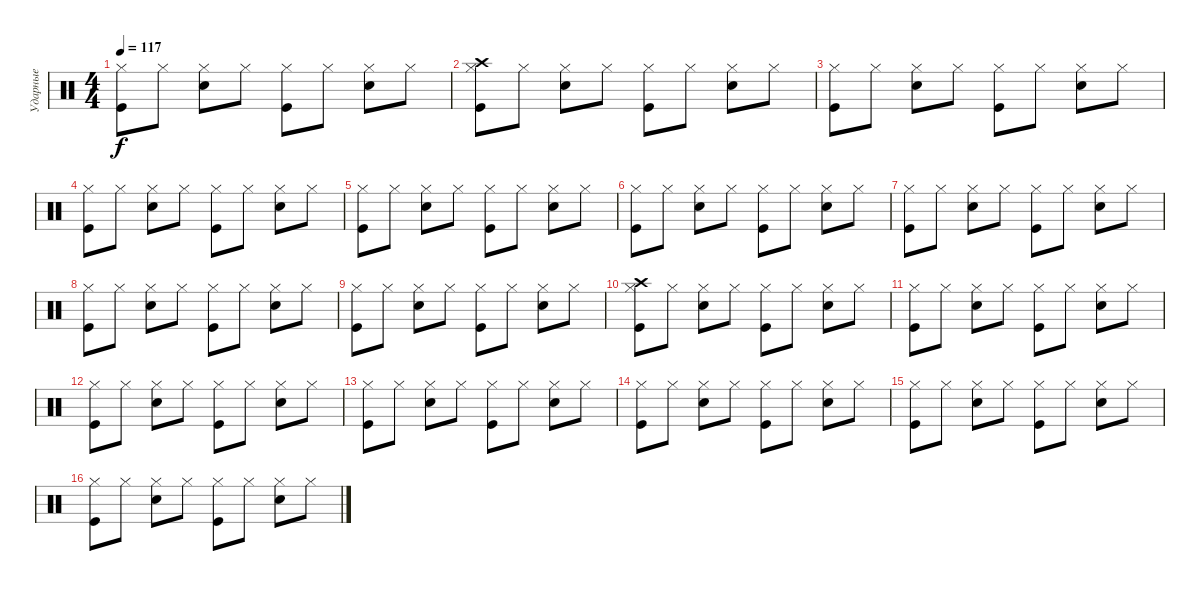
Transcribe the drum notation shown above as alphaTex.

\track ("Ударные" "Ударные") {instrument percussion}
\staff {score}
\articulation defaults
\ts (4 4)
\tempo 117
\clef neutral
\ks c
("Kick (hit)" "Hi-Hat (closed)").8{dy f} "Hi-Hat (closed)".8 ("Hi-Hat (closed)" "Snare (hit) 2").8 "Hi-Hat (closed)".8 ("Kick (hit)" "Hi-Hat (closed)").8 "Hi-Hat (closed)".8 ("Hi-Hat (closed)" "Snare (hit) 2").8 "Hi-Hat (closed)".8 |
("Kick (hit)" "Hi-Hat (closed)" "Crash high (hit)").8 "Hi-Hat (closed)".8 ("Hi-Hat (closed)" "Snare (hit) 2").8 "Hi-Hat (closed)".8 ("Kick (hit)" "Hi-Hat (closed)").8 "Hi-Hat (closed)".8 ("Hi-Hat (closed)" "Snare (hit) 2").8 "Hi-Hat (closed)".8 |
("Kick (hit)" "Hi-Hat (closed)").8 "Hi-Hat (closed)".8 ("Hi-Hat (closed)" "Snare (hit) 2").8 "Hi-Hat (closed)".8 ("Kick (hit)" "Hi-Hat (closed)").8 "Hi-Hat (closed)".8 ("Hi-Hat (closed)" "Snare (hit) 2").8 "Hi-Hat (closed)".8 |
("Kick (hit)" "Hi-Hat (closed)").8 "Hi-Hat (closed)".8 ("Hi-Hat (closed)" "Snare (hit) 2").8 "Hi-Hat (closed)".8 ("Kick (hit)" "Hi-Hat (closed)").8 "Hi-Hat (closed)".8 ("Hi-Hat (closed)" "Snare (hit) 2").8 "Hi-Hat (closed)".8 |
("Kick (hit)" "Hi-Hat (closed)").8 "Hi-Hat (closed)".8 ("Hi-Hat (closed)" "Snare (hit) 2").8 "Hi-Hat (closed)".8 ("Kick (hit)" "Hi-Hat (closed)").8 "Hi-Hat (closed)".8 ("Hi-Hat (closed)" "Snare (hit) 2").8 "Hi-Hat (closed)".8 |
("Kick (hit)" "Hi-Hat (closed)").8 "Hi-Hat (closed)".8 ("Hi-Hat (closed)" "Snare (hit) 2").8 "Hi-Hat (closed)".8 ("Kick (hit)" "Hi-Hat (closed)").8 "Hi-Hat (closed)".8 ("Hi-Hat (closed)" "Snare (hit) 2").8 "Hi-Hat (closed)".8 |
("Kick (hit)" "Hi-Hat (closed)").8 "Hi-Hat (closed)".8 ("Hi-Hat (closed)" "Snare (hit) 2").8 "Hi-Hat (closed)".8 ("Kick (hit)" "Hi-Hat (closed)").8 "Hi-Hat (closed)".8 ("Hi-Hat (closed)" "Snare (hit) 2").8 "Hi-Hat (closed)".8 |
("Kick (hit)" "Hi-Hat (closed)").8 "Hi-Hat (closed)".8 ("Hi-Hat (closed)" "Snare (hit) 2").8 "Hi-Hat (closed)".8 ("Kick (hit)" "Hi-Hat (closed)").8 "Hi-Hat (closed)".8 ("Hi-Hat (closed)" "Snare (hit) 2").8 "Hi-Hat (closed)".8 |
("Kick (hit)" "Hi-Hat (closed)").8 "Hi-Hat (closed)".8 ("Hi-Hat (closed)" "Snare (hit) 2").8 "Hi-Hat (closed)".8 ("Kick (hit)" "Hi-Hat (closed)").8 "Hi-Hat (closed)".8 ("Hi-Hat (closed)" "Snare (hit) 2").8 "Hi-Hat (closed)".8 |
("Kick (hit)" "Hi-Hat (closed)" "Crash high (hit)").8 "Hi-Hat (closed)".8 ("Hi-Hat (closed)" "Snare (hit) 2").8 "Hi-Hat (closed)".8 ("Kick (hit)" "Hi-Hat (closed)").8 "Hi-Hat (closed)".8 ("Hi-Hat (closed)" "Snare (hit) 2").8 "Hi-Hat (closed)".8 |
("Kick (hit)" "Hi-Hat (closed)").8 "Hi-Hat (closed)".8 ("Hi-Hat (closed)" "Snare (hit) 2").8 "Hi-Hat (closed)".8 ("Kick (hit)" "Hi-Hat (closed)").8 "Hi-Hat (closed)".8 ("Hi-Hat (closed)" "Snare (hit) 2").8 "Hi-Hat (closed)".8 |
("Kick (hit)" "Hi-Hat (closed)").8 "Hi-Hat (closed)".8 ("Hi-Hat (closed)" "Snare (hit) 2").8 "Hi-Hat (closed)".8 ("Kick (hit)" "Hi-Hat (closed)").8 "Hi-Hat (closed)".8 ("Hi-Hat (closed)" "Snare (hit) 2").8 "Hi-Hat (closed)".8 |
("Kick (hit)" "Hi-Hat (closed)").8 "Hi-Hat (closed)".8 ("Hi-Hat (closed)" "Snare (hit) 2").8 "Hi-Hat (closed)".8 ("Kick (hit)" "Hi-Hat (closed)").8 "Hi-Hat (closed)".8 ("Hi-Hat (closed)" "Snare (hit) 2").8 "Hi-Hat (closed)".8 |
("Kick (hit)" "Hi-Hat (closed)").8 "Hi-Hat (closed)".8 ("Hi-Hat (closed)" "Snare (hit) 2").8 "Hi-Hat (closed)".8 ("Kick (hit)" "Hi-Hat (closed)").8 "Hi-Hat (closed)".8 ("Hi-Hat (closed)" "Snare (hit) 2").8 "Hi-Hat (closed)".8 |
("Kick (hit)" "Hi-Hat (closed)").8 "Hi-Hat (closed)".8 ("Hi-Hat (closed)" "Snare (hit) 2").8 "Hi-Hat (closed)".8 ("Kick (hit)" "Hi-Hat (closed)").8 "Hi-Hat (closed)".8 ("Hi-Hat (closed)" "Snare (hit) 2").8 "Hi-Hat (closed)".8 |
("Kick (hit)" "Hi-Hat (closed)").8 "Hi-Hat (closed)".8 ("Hi-Hat (closed)" "Snare (hit) 2").8 "Hi-Hat (closed)".8 ("Kick (hit)" "Hi-Hat (closed)").8 "Hi-Hat (closed)".8 ("Hi-Hat (closed)" "Snare (hit) 2").8 "Hi-Hat (closed)".8
